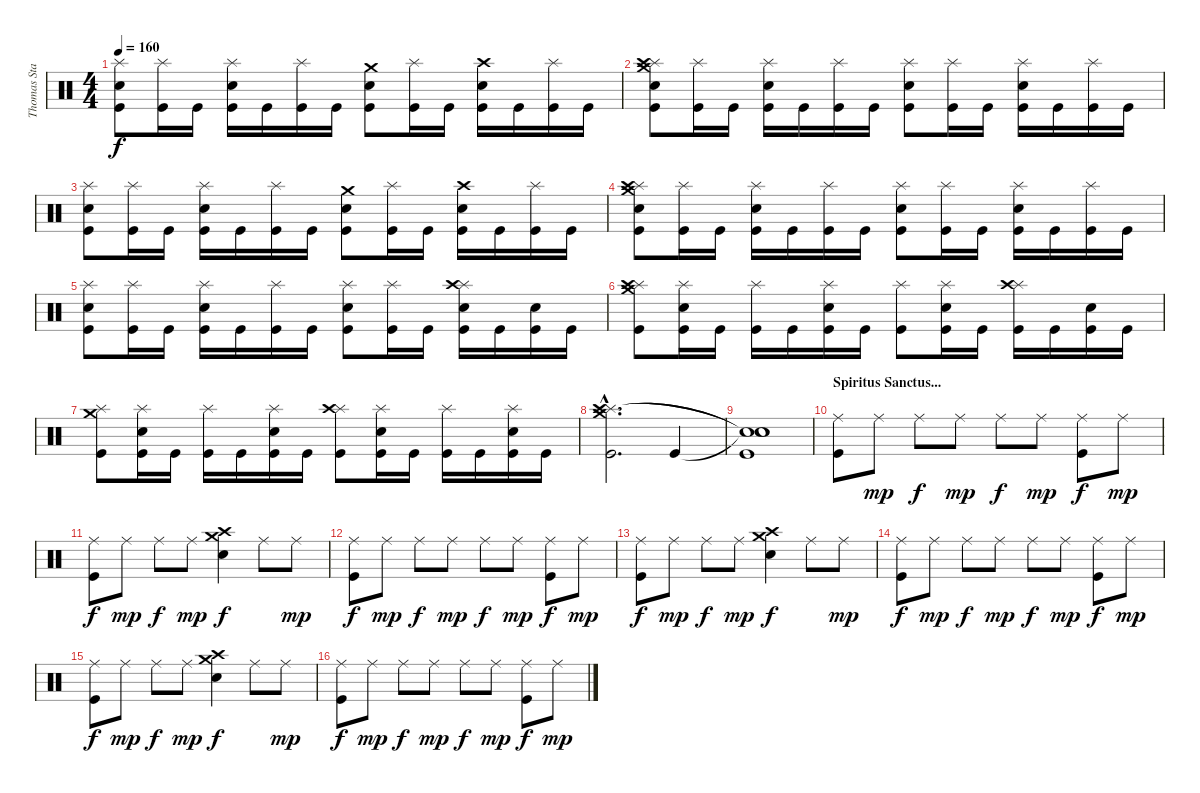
\track ("Thomas Stauch" "Thomas Sta") {instrument percussion}
\staff {score}
\articulation defaults
\ts (4 4)
\tempo 160
\clef neutral
\ks c
("Splash (hit)" "Electric Snare (hit)" "Kick (hit)").8{dy f} ("Splash (hit)" "Kick (hit)").16 "Kick (hit)".16 ("Splash (hit)" "Electric Snare (hit)" "Kick (hit)").16 "Kick (hit)".16 ("Splash (hit)" "Kick (hit)").16 "Kick (hit)".16 ("Crash medium (hit)" "Electric Snare (hit)" "Kick (hit)").8 ("Splash (hit)" "Kick (hit)").16 "Kick (hit)".16 ("Crash high (hit)" "Electric Snare (hit)" "Kick (hit)").16 "Kick (hit)".16 ("Splash (hit)" "Kick (hit)").16 "Kick (hit)".16 |
("Crash medium (hit)" "Splash (hit)" "Crash high (hit)" "Electric Snare (hit)" "Kick (hit)").8 ("Splash (hit)" "Kick (hit)").16 "Kick (hit)".16 ("Splash (hit)" "Electric Snare (hit)" "Kick (hit)").16 "Kick (hit)".16 ("Splash (hit)" "Kick (hit)").16 "Kick (hit)".16 ("Splash (hit)" "Electric Snare (hit)" "Kick (hit)").8 ("Splash (hit)" "Kick (hit)").16 "Kick (hit)".16 ("Splash (hit)" "Electric Snare (hit)" "Kick (hit)").16 "Kick (hit)".16 ("Splash (hit)" "Kick (hit)").16 "Kick (hit)".16 |
("Splash (hit)" "Electric Snare (hit)" "Kick (hit)").8 ("Splash (hit)" "Kick (hit)").16 "Kick (hit)".16 ("Splash (hit)" "Electric Snare (hit)" "Kick (hit)").16 "Kick (hit)".16 ("Splash (hit)" "Kick (hit)").16 "Kick (hit)".16 ("Crash medium (hit)" "Electric Snare (hit)" "Kick (hit)").8 ("Splash (hit)" "Kick (hit)").16 "Kick (hit)".16 ("Crash high (hit)" "Electric Snare (hit)" "Kick (hit)").16 "Kick (hit)".16 ("Splash (hit)" "Kick (hit)").16 "Kick (hit)".16 |
("Crash medium (hit)" "Splash (hit)" "Crash high (hit)" "Electric Snare (hit)" "Kick (hit)").8 ("Splash (hit)" "Kick (hit)").16 "Kick (hit)".16 ("Splash (hit)" "Electric Snare (hit)" "Kick (hit)").16 "Kick (hit)".16 ("Splash (hit)" "Kick (hit)").16 "Kick (hit)".16 ("Splash (hit)" "Electric Snare (hit)" "Kick (hit)").8 ("Splash (hit)" "Kick (hit)").16 "Kick (hit)".16 ("Splash (hit)" "Electric Snare (hit)" "Kick (hit)").16 "Kick (hit)".16 ("Splash (hit)" "Kick (hit)").16 "Kick (hit)".16 |
("Splash (hit)" "Electric Snare (hit)" "Kick (hit)").8 ("Splash (hit)" "Kick (hit)").16 "Kick (hit)".16 ("Splash (hit)" "Electric Snare (hit)" "Kick (hit)").16 "Kick (hit)".16 ("Splash (hit)" "Kick (hit)").16 "Kick (hit)".16 ("Splash (hit)" "Electric Snare (hit)" "Kick (hit)").8 ("Splash (hit)" "Kick (hit)").16 "Kick (hit)".16 ("Splash (hit)" "Crash high (hit)" "Electric Snare (hit)" "Kick (hit)").16 "Kick (hit)".16 ("Electric Snare (hit)" "Kick (hit)").16 "Kick (hit)".16 |
("Crash medium (hit)" "Splash (hit)" "Crash high (hit)" "Kick (hit)").8 ("Splash (hit)" "Electric Snare (hit)" "Kick (hit)").16 "Kick (hit)".16 ("Splash (hit)" "Kick (hit)").16 "Kick (hit)".16 ("Splash (hit)" "Electric Snare (hit)" "Kick (hit)").16 "Kick (hit)".16 ("Splash (hit)" "Kick (hit)").8 ("Splash (hit)" "Electric Snare (hit)" "Kick (hit)").16 "Kick (hit)".16 ("Splash (hit)" "Crash high (hit)" "Kick (hit)").16 "Kick (hit)".16 ("Electric Snare (hit)" "Kick (hit)").16 "Kick (hit)".16 |
("Crash medium (hit)" "Splash (hit)" "Kick (hit)").8 ("Splash (hit)" "Electric Snare (hit)" "Kick (hit)").16 "Kick (hit)".16 ("Splash (hit)" "Kick (hit)").16 "Kick (hit)".16 ("Splash (hit)" "Electric Snare (hit)" "Kick (hit)").16 "Kick (hit)".16 ("Splash (hit)" "Crash high (hit)" "Kick (hit)").8 ("Splash (hit)" "Electric Snare (hit)" "Kick (hit)").16 "Kick (hit)".16 ("Splash (hit)" "Kick (hit)").16 "Kick (hit)".16 ("Splash (hit)" "Electric Snare (hit)" "Kick (hit)").16 "Kick (hit)".16 |
("Crash medium (hit)"{hac} "Splash (hit)"{hac} "Crash high (hit)"{hac} "Kick (hit)"{hac}).2{d} "Kick (hit)".4 |
("Snare (hit)"{t} "Snare (hit)"{t} "Snare (hit)"{t} "Kick (hit)").1 |
\section ("" "Spiritus Sanctus...")
("Ride (middle)" "Kick (hit)").8 "Ride (middle)".8{dy mp} "Ride (middle)".8{dy f} "Ride (middle)".8{dy mp} "Ride (middle)".8{dy f} "Ride (middle)".8{dy mp} ("Ride (middle)" "Kick (hit)").8{dy f} "Ride (middle)".8{dy mp} |
("Ride (middle)" "Kick (hit)").8{dy f} "Ride (middle)".8{dy mp} "Ride (middle)".8{dy f} "Ride (middle)".8{dy mp} ("Crash medium (hit)" "Crash high (hit)" "Electric Snare (hit)").4{dy f} "Ride (middle)".8 "Ride (middle)".8{dy mp} |
("Ride (middle)" "Kick (hit)").8{dy f} "Ride (middle)".8{dy mp} "Ride (middle)".8{dy f} "Ride (middle)".8{dy mp} "Ride (middle)".8{dy f} "Ride (middle)".8{dy mp} ("Ride (middle)" "Kick (hit)").8{dy f} "Ride (middle)".8{dy mp} |
("Ride (middle)" "Kick (hit)").8{dy f} "Ride (middle)".8{dy mp} "Ride (middle)".8{dy f} "Ride (middle)".8{dy mp} ("Crash medium (hit)" "Crash high (hit)" "Electric Snare (hit)").4{dy f} "Ride (middle)".8 "Ride (middle)".8{dy mp} |
("Ride (middle)" "Kick (hit)").8{dy f} "Ride (middle)".8{dy mp} "Ride (middle)".8{dy f} "Ride (middle)".8{dy mp} "Ride (middle)".8{dy f} "Ride (middle)".8{dy mp} ("Ride (middle)" "Kick (hit)").8{dy f} "Ride (middle)".8{dy mp} |
("Ride (middle)" "Kick (hit)").8{dy f} "Ride (middle)".8{dy mp} "Ride (middle)".8{dy f} "Ride (middle)".8{dy mp} ("Crash medium (hit)" "Crash high (hit)" "Electric Snare (hit)").4{dy f} "Ride (middle)".8 "Ride (middle)".8{dy mp} |
("Ride (middle)" "Kick (hit)").8{dy f} "Ride (middle)".8{dy mp} "Ride (middle)".8{dy f} "Ride (middle)".8{dy mp} "Ride (middle)".8{dy f} "Ride (middle)".8{dy mp} ("Ride (middle)" "Kick (hit)").8{dy f} "Ride (middle)".8{dy mp}
